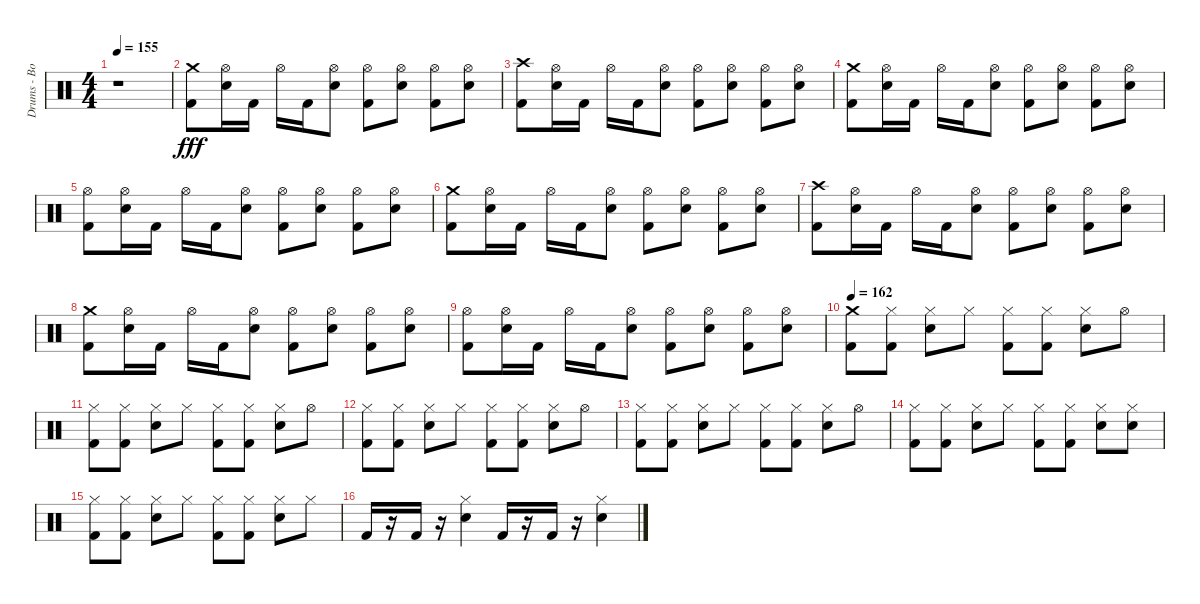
\track ("Drums - Bobby Schayer" "Drums - Bo") {instrument percussion}
\staff {score}
\articulation defaults
\ts (4 4)
\tempo 155
\clef neutral
\ks c
r.1{dy fff} |
("Kick (hit) 2" "Crash medium (hit)").8 ("Electric Snare (hit)" "Hi-Hat (open)").16 "Kick (hit) 2".16 "Hi-Hat (open)".16 "Kick (hit) 2".16 ("Electric Snare (hit)" "Hi-Hat (open)").8 ("Kick (hit) 2" "Hi-Hat (open)").8 ("Electric Snare (hit)" "Hi-Hat (open)").8 ("Kick (hit) 2" "Hi-Hat (open)").8 ("Electric Snare (hit)" "Hi-Hat (open)").8 |
("Kick (hit) 2" "Crash high (hit)").8 ("Electric Snare (hit)" "Hi-Hat (open)").16 "Kick (hit) 2".16 "Hi-Hat (open)".16 "Kick (hit) 2".16 ("Electric Snare (hit)" "Hi-Hat (open)").8 ("Kick (hit) 2" "Hi-Hat (open)").8 ("Electric Snare (hit)" "Hi-Hat (open)").8 ("Kick (hit) 2" "Hi-Hat (open)").8 ("Electric Snare (hit)" "Hi-Hat (open)").8 |
("Kick (hit) 2" "Crash medium (hit)").8 ("Electric Snare (hit)" "Hi-Hat (open)").16 "Kick (hit) 2".16 "Hi-Hat (open)".16 "Kick (hit) 2".16 ("Electric Snare (hit)" "Hi-Hat (open)").8 ("Kick (hit) 2" "Hi-Hat (open)").8 ("Electric Snare (hit)" "Hi-Hat (open)").8 ("Kick (hit) 2" "Hi-Hat (open)").8 ("Electric Snare (hit)" "Hi-Hat (open)").8 |
("Hi-Hat (open)" "Kick (hit) 2").8 ("Hi-Hat (open)" "Electric Snare (hit)").16 "Kick (hit) 2".16 "Hi-Hat (open)".16 "Kick (hit) 2".16 ("Hi-Hat (open)" "Electric Snare (hit)").8 ("Hi-Hat (open)" "Kick (hit) 2").8 ("Hi-Hat (open)" "Electric Snare (hit)").8 ("Hi-Hat (open)" "Kick (hit) 2").8 ("Hi-Hat (open)" "Electric Snare (hit)").8 |
("Kick (hit) 2" "Crash medium (hit)").8 ("Electric Snare (hit)" "Hi-Hat (open)").16 "Kick (hit) 2".16 "Hi-Hat (open)".16 "Kick (hit) 2".16 ("Electric Snare (hit)" "Hi-Hat (open)").8 ("Kick (hit) 2" "Hi-Hat (open)").8 ("Electric Snare (hit)" "Hi-Hat (open)").8 ("Kick (hit) 2" "Hi-Hat (open)").8 ("Electric Snare (hit)" "Hi-Hat (open)").8 |
("Kick (hit) 2" "Crash high (hit)").8 ("Electric Snare (hit)" "Hi-Hat (open)").16 "Kick (hit) 2".16 "Hi-Hat (open)".16 "Kick (hit) 2".16 ("Electric Snare (hit)" "Hi-Hat (open)").8 ("Kick (hit) 2" "Hi-Hat (open)").8 ("Electric Snare (hit)" "Hi-Hat (open)").8 ("Kick (hit) 2" "Hi-Hat (open)").8 ("Electric Snare (hit)" "Hi-Hat (open)").8 |
("Kick (hit) 2" "Crash medium (hit)").8 ("Electric Snare (hit)" "Hi-Hat (open)").16 "Kick (hit) 2".16 "Hi-Hat (open)".16 "Kick (hit) 2".16 ("Electric Snare (hit)" "Hi-Hat (open)").8 ("Kick (hit) 2" "Hi-Hat (open)").8 ("Electric Snare (hit)" "Hi-Hat (open)").8 ("Kick (hit) 2" "Hi-Hat (open)").8 ("Electric Snare (hit)" "Hi-Hat (open)").8 |
("Hi-Hat (open)" "Kick (hit) 2").8 ("Hi-Hat (open)" "Electric Snare (hit)").16 "Kick (hit) 2".16 "Hi-Hat (open)".16 "Kick (hit) 2".16 ("Hi-Hat (open)" "Electric Snare (hit)").8 ("Hi-Hat (open)" "Kick (hit) 2").8 ("Hi-Hat (open)" "Electric Snare (hit)").8 ("Hi-Hat (open)" "Kick (hit) 2").8 ("Hi-Hat (open)" "Electric Snare (hit)").8 |
\tempo 162
("Kick (hit) 2" "Crash medium (hit)").8 ("Kick (hit) 2" "Hi-Hat (closed)").8 ("Electric Snare (hit)" "Hi-Hat (closed)").8 "Hi-Hat (closed)".8 ("Kick (hit) 2" "Hi-Hat (closed)").8 ("Kick (hit) 2" "Hi-Hat (closed)").8 ("Electric Snare (hit)" "Hi-Hat (closed)").8 "Hi-Hat (open)".8 |
("Kick (hit) 2" "Hi-Hat (closed)").8 ("Kick (hit) 2" "Hi-Hat (closed)").8 ("Electric Snare (hit)" "Hi-Hat (closed)").8 "Hi-Hat (closed)".8 ("Kick (hit) 2" "Hi-Hat (closed)").8 ("Kick (hit) 2" "Hi-Hat (closed)").8 ("Electric Snare (hit)" "Hi-Hat (closed)").8 "Hi-Hat (open)".8 |
("Kick (hit) 2" "Hi-Hat (closed)").8 ("Kick (hit) 2" "Hi-Hat (closed)").8 ("Electric Snare (hit)" "Hi-Hat (closed)").8 "Hi-Hat (closed)".8 ("Kick (hit) 2" "Hi-Hat (closed)").8 ("Kick (hit) 2" "Hi-Hat (closed)").8 ("Electric Snare (hit)" "Hi-Hat (closed)").8 "Hi-Hat (open)".8 |
("Kick (hit) 2" "Hi-Hat (closed)").8 ("Kick (hit) 2" "Hi-Hat (closed)").8 ("Electric Snare (hit)" "Hi-Hat (closed)").8 "Hi-Hat (closed)".8 ("Kick (hit) 2" "Hi-Hat (closed)").8 ("Kick (hit) 2" "Hi-Hat (closed)").8 ("Electric Snare (hit)" "Hi-Hat (closed)").8 "Hi-Hat (open)".8 |
("Kick (hit) 2" "Hi-Hat (closed)").8 ("Kick (hit) 2" "Hi-Hat (closed)").8 ("Electric Snare (hit)" "Hi-Hat (closed)").8 "Hi-Hat (closed)".8 ("Kick (hit) 2" "Hi-Hat (closed)").8 ("Kick (hit) 2" "Hi-Hat (closed)").8 ("Electric Snare (hit)" "Hi-Hat (closed)").8 ("Hi-Hat (closed)" "Electric Snare (hit)").8 |
("Kick (hit) 2" "Hi-Hat (closed)").8 ("Kick (hit) 2" "Hi-Hat (closed)").8 ("Electric Snare (hit)" "Hi-Hat (closed)").8 "Hi-Hat (closed)".8 ("Kick (hit) 2" "Hi-Hat (closed)").8 ("Kick (hit) 2" "Hi-Hat (closed)").8 ("Electric Snare (hit)" "Hi-Hat (closed)").8 "Hi-Hat (closed)".8 |
"Kick (hit) 2".16 r.16 "Kick (hit) 2".16 r.16 ("Electric Snare (hit)" "Hi-Hat (closed)").4 "Kick (hit) 2".16 r.16 "Kick (hit) 2".16 r.16 ("Electric Snare (hit)" "Hi-Hat (closed)").4
